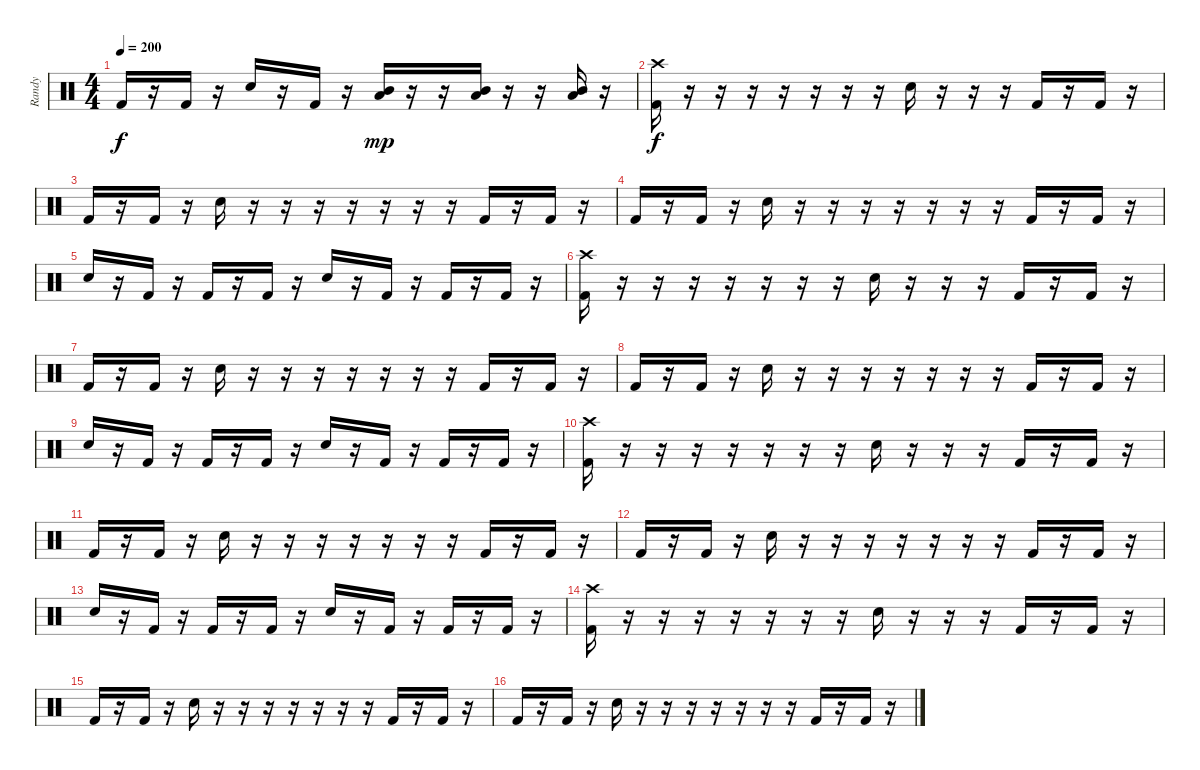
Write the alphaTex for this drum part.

\track ("Randy" "Randy") {instrument percussion}
\staff {score}
\articulation defaults
\ts (4 4)
\tempo 200
\clef neutral
\ks c "Kick (hit) 2".16{dy f}
r.16 "Kick (hit) 2".16 r.16 "Electric Snare (hit)".16 r.16 "Kick (hit) 2".16 r.16 ("Mid Tom (hit)" "Low Tom (hit)").16{dy mp} r.16 r.16 ("Mid Tom (hit)" "Low Tom (hit)").16 r.16 r.16 ("Mid Tom (hit)" "Low Tom (hit)").16 r.16 |
("Kick (hit) 2" "Crash high (hit)").16{dy f} r.16 r.16 r.16 r.16 r.16 r.16 r.16 "Electric Snare (hit)".16 r.16 r.16 r.16 "Kick (hit) 2".16 r.16 "Kick (hit) 2".16 r.16 |
"Kick (hit) 2".16 r.16 "Kick (hit) 2".16 r.16 "Electric Snare (hit)".16 r.16 r.16 r.16 r.16 r.16 r.16 r.16 "Kick (hit) 2".16 r.16 "Kick (hit) 2".16 r.16 |
"Kick (hit) 2".16 r.16 "Kick (hit) 2".16 r.16 "Electric Snare (hit)".16 r.16 r.16 r.16 r.16 r.16 r.16 r.16 "Kick (hit) 2".16 r.16 "Kick (hit) 2".16 r.16 |
"Electric Snare (hit)".16 r.16 "Kick (hit) 2".16 r.16 "Kick (hit) 2".16 r.16 "Kick (hit) 2".16 r.16 "Electric Snare (hit)".16 r.16 "Kick (hit) 2".16 r.16 "Kick (hit) 2".16 r.16 "Kick (hit) 2".16 r.16 |
("Kick (hit) 2" "Crash high (hit)").16 r.16 r.16 r.16 r.16 r.16 r.16 r.16 "Electric Snare (hit)".16 r.16 r.16 r.16 "Kick (hit) 2".16 r.16 "Kick (hit) 2".16 r.16 |
"Kick (hit) 2".16 r.16 "Kick (hit) 2".16 r.16 "Electric Snare (hit)".16 r.16 r.16 r.16 r.16 r.16 r.16 r.16 "Kick (hit) 2".16 r.16 "Kick (hit) 2".16 r.16 |
"Kick (hit) 2".16 r.16 "Kick (hit) 2".16 r.16 "Electric Snare (hit)".16 r.16 r.16 r.16 r.16 r.16 r.16 r.16 "Kick (hit) 2".16 r.16 "Kick (hit) 2".16 r.16 |
"Electric Snare (hit)".16 r.16 "Kick (hit) 2".16 r.16 "Kick (hit) 2".16 r.16 "Kick (hit) 2".16 r.16 "Electric Snare (hit)".16 r.16 "Kick (hit) 2".16 r.16 "Kick (hit) 2".16 r.16 "Kick (hit) 2".16 r.16 |
("Kick (hit) 2" "Crash high (hit)").16 r.16 r.16 r.16 r.16 r.16 r.16 r.16 "Electric Snare (hit)".16 r.16 r.16 r.16 "Kick (hit) 2".16 r.16 "Kick (hit) 2".16 r.16 |
"Kick (hit) 2".16 r.16 "Kick (hit) 2".16 r.16 "Electric Snare (hit)".16 r.16 r.16 r.16 r.16 r.16 r.16 r.16 "Kick (hit) 2".16 r.16 "Kick (hit) 2".16 r.16 |
"Kick (hit) 2".16 r.16 "Kick (hit) 2".16 r.16 "Electric Snare (hit)".16 r.16 r.16 r.16 r.16 r.16 r.16 r.16 "Kick (hit) 2".16 r.16 "Kick (hit) 2".16 r.16 |
"Electric Snare (hit)".16 r.16 "Kick (hit) 2".16 r.16 "Kick (hit) 2".16 r.16 "Kick (hit) 2".16 r.16 "Electric Snare (hit)".16 r.16 "Kick (hit) 2".16 r.16 "Kick (hit) 2".16 r.16 "Kick (hit) 2".16 r.16 |
("Kick (hit) 2" "Crash high (hit)").16 r.16 r.16 r.16 r.16 r.16 r.16 r.16 "Electric Snare (hit)".16 r.16 r.16 r.16 "Kick (hit) 2".16 r.16 "Kick (hit) 2".16 r.16 |
"Kick (hit) 2".16 r.16 "Kick (hit) 2".16 r.16 "Electric Snare (hit)".16 r.16 r.16 r.16 r.16 r.16 r.16 r.16 "Kick (hit) 2".16 r.16 "Kick (hit) 2".16 r.16 |
"Kick (hit) 2".16 r.16 "Kick (hit) 2".16 r.16 "Electric Snare (hit)".16 r.16 r.16 r.16 r.16 r.16 r.16 r.16 "Kick (hit) 2".16 r.16 "Kick (hit) 2".16 r.16
